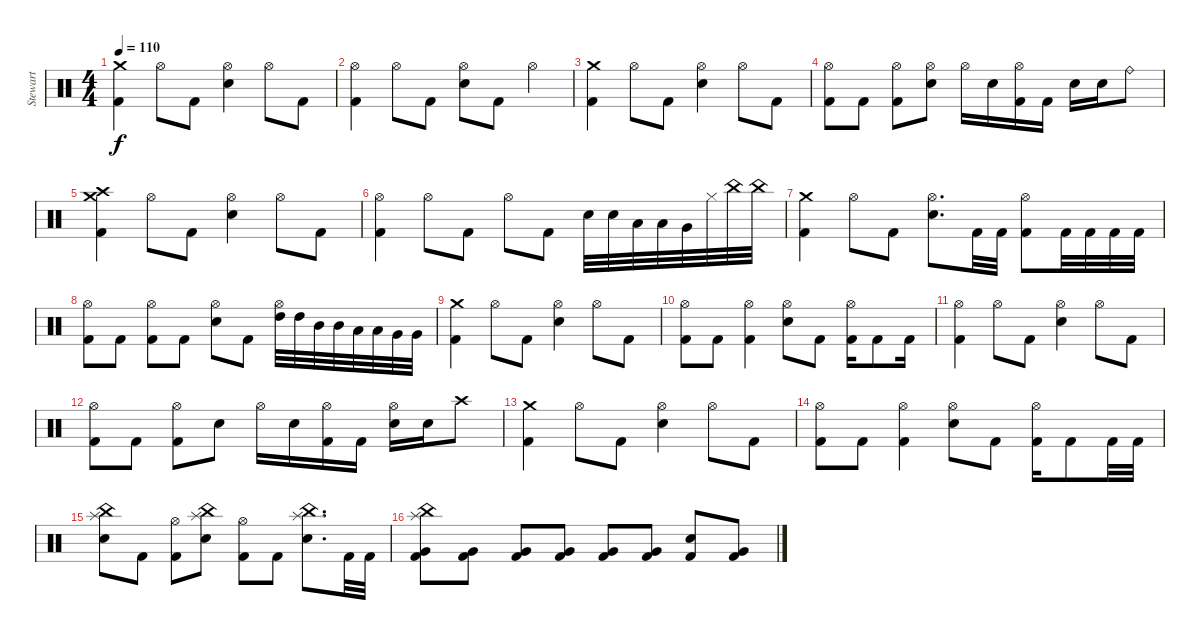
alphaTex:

\track ("Stewart" "Stewart") {instrument percussion}
\staff {score}
\articulation defaults
\ts (4 4)
\tempo 110
\clef neutral
\ks c
("Crash medium (hit)" "Kick (hit) 2").4{dy f} "Hi-Hat (open)".8 "Kick (hit) 2".8 ("Hi-Hat (open)" "Electric Snare (hit)").4 "Hi-Hat (open)".8 "Kick (hit) 2".8 |
("Hi-Hat (open)" "Kick (hit) 2").4 "Hi-Hat (open)".8 "Kick (hit) 2".8 ("Hi-Hat (open)" "Electric Snare (hit)").8 "Kick (hit) 2".8 "Hi-Hat (open)".4 |
("Crash medium (hit)" "Kick (hit) 2").4 "Hi-Hat (open)".8 "Kick (hit) 2".8 ("Hi-Hat (open)" "Electric Snare (hit)").4 "Hi-Hat (open)".8 "Kick (hit) 2".8 |
("Hi-Hat (open)" "Kick (hit) 2").8 "Kick (hit) 2".8 ("Hi-Hat (open)" "Kick (hit) 2").8 ("Hi-Hat (open)" "Electric Snare (hit)").8 "Hi-Hat (open)".16 "Electric Snare (hit)".16 ("Hi-Hat (open)" "Kick (hit) 2").16 "Kick (hit) 2".16 "Electric Snare (hit)".16 "Electric Snare (hit)".16 "Ride (bell)".8 |
("Crash medium (hit)" "Crash high (hit)" "Kick (hit) 2").4 "Hi-Hat (open)".8 "Kick (hit) 2".8 ("Hi-Hat (open)" "Electric Snare (hit)").4 "Hi-Hat (open)".8 "Kick (hit) 2".8 |
("Hi-Hat (open)" "Kick (hit) 2").4 "Hi-Hat (open)".8 "Kick (hit) 2".8 "Hi-Hat (open)".8 "Kick (hit) 2".8 "Electric Snare (hit)".32 "Electric Snare (hit)".32 "Low Tom (hit)".32 "Low Tom (hit)".32 "Very Low Tom (hit)".32 "Hi-Hat (closed)".32 "China (hit)".32 "China (hit)".32 |
("Crash medium (hit)" "Kick (hit) 2").4 "Hi-Hat (open)".8 "Kick (hit) 2".8 ("Hi-Hat (open)" "Electric Snare (hit)").8{d} "Kick (hit) 2".32 "Kick (hit) 2".32 ("Hi-Hat (open)" "Kick (hit) 2").8 "Kick (hit) 2".32 "Kick (hit) 2".32 "Kick (hit) 2".32 "Kick (hit) 2".32 |
("Hi-Hat (open)" "Kick (hit) 2").8 "Kick (hit) 2".8 ("Hi-Hat (open)" "Kick (hit) 2").8 "Kick (hit) 2".8 ("Hi-Hat (open)" "Electric Snare (hit)").8 "Kick (hit) 2".8 ("Hi-Hat (open)" "High Tom (hit)").32 "High Tom (hit)".32 "Mid Tom (hit)".32 "Mid Tom (hit)".32 "Low Tom (hit)".32 "Low Tom (hit)".32 "Very Low Tom (hit)".32 "Very Low Tom (hit)".32 |
("Crash medium (hit)" "Kick (hit) 2").4 "Hi-Hat (open)".8 "Kick (hit) 2".8 ("Hi-Hat (open)" "Electric Snare (hit)").4 "Hi-Hat (open)".8 "Kick (hit) 2".8 |
("Hi-Hat (open)" "Kick (hit) 2").8 "Kick (hit) 2".8 ("Hi-Hat (open)" "Kick (hit) 2").4 ("Hi-Hat (open)" "Electric Snare (hit)").8 "Kick (hit) 2".8 ("Hi-Hat (open)" "Kick (hit) 2").16 "Kick (hit) 2".8 "Kick (hit) 2".16 |
("Hi-Hat (open)" "Kick (hit) 2").4 "Hi-Hat (open)".8 "Kick (hit) 2".8 ("Hi-Hat (open)" "Electric Snare (hit)").4 "Hi-Hat (open)".8 "Kick (hit) 2".8 |
("Hi-Hat (open)" "Kick (hit) 2").8 "Kick (hit) 2".8 ("Hi-Hat (open)" "Kick (hit) 2").8 "Electric Snare (hit)".8 "Hi-Hat (open)".16 "Electric Snare (hit)".16 ("Hi-Hat (open)" "Kick (hit) 2").16 "Kick (hit) 2".16 ("Hi-Hat (open)" "Electric Snare (hit)").16 "Electric Snare (hit)".16 "Crash high (hit)".8 |
("Crash medium (hit)" "Kick (hit) 2").4 "Hi-Hat (open)".8 "Kick (hit) 2".8 ("Hi-Hat (open)" "Electric Snare (hit)").4 "Hi-Hat (open)".8 "Kick (hit) 2".8 |
("Hi-Hat (open)" "Kick (hit) 2").8 "Kick (hit) 2".8 ("Hi-Hat (open)" "Kick (hit) 2").4 ("Hi-Hat (open)" "Electric Snare (hit)").8 "Kick (hit) 2".8 ("Hi-Hat (open)" "Kick (hit) 2").16 "Kick (hit) 2".8 "Kick (hit) 2".32 "Kick (hit) 2".32 |
("China (hit)" "Splash (hit)" "Electric Snare (hit)").8 "Kick (hit) 2".8 ("Hi-Hat (open)" "Kick (hit) 2").8 ("China (hit)" "Splash (hit)" "Electric Snare (hit)").8 ("Hi-Hat (open)" "Kick (hit) 2").8 "Kick (hit) 2".8 ("China (hit)" "Splash (hit)" "Electric Snare (hit)").8{d} "Kick (hit) 2".32 "Kick (hit) 2".32 |
("Splash (hit)" "China (hit)" "Very Low Tom (hit)" "Kick (hit) 2").8 ("Very Low Tom (hit)" "Kick (hit) 2").8 ("Very Low Tom (hit)" "Kick (hit) 2").8 ("Very Low Tom (hit)" "Kick (hit) 2").8 ("Very Low Tom (hit)" "Kick (hit) 2").8 ("Very Low Tom (hit)" "Kick (hit) 2").8 ("Electric Snare (hit)" "Kick (hit) 2").8 ("Very Low Tom (hit)" "Kick (hit) 2").8
